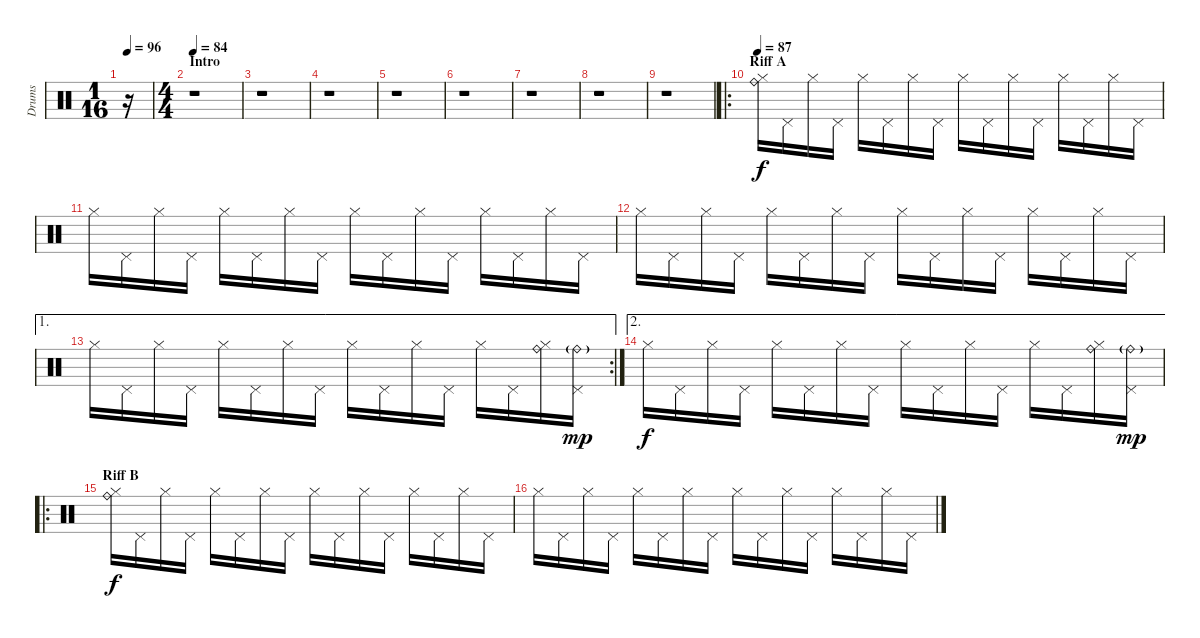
\track ("Drums" "Drums") {instrument percussion}
\staff {score}
\articulation defaults
\ts (1 16)
\tempo 96
\clef neutral
\ks c
r.16{dy f} |
\ts (4 4)
\section ("" "Intro")
\tempo 84
r.1 |
r.1 |
r.1 |
r.1 |
r.1 |
r.1 |
r.1 |
r.1 |
\ro
\section ("" "Riff A")
\tempo 87
("Hi-Hat (closed)" "Ride (bell)").16 "Pedal Hi-Hat (hit)".16 "Hi-Hat (closed)".16 "Pedal Hi-Hat (hit)".16 "Hi-Hat (closed)".16 "Pedal Hi-Hat (hit)".16 "Hi-Hat (closed)".16 "Pedal Hi-Hat (hit)".16 "Hi-Hat (closed)".16 "Pedal Hi-Hat (hit)".16 "Hi-Hat (closed)".16 "Pedal Hi-Hat (hit)".16 "Hi-Hat (closed)".16 "Pedal Hi-Hat (hit)".16 "Hi-Hat (closed)".16 "Pedal Hi-Hat (hit)".16 |
"Hi-Hat (closed)".16 "Pedal Hi-Hat (hit)".16 "Hi-Hat (closed)".16 "Pedal Hi-Hat (hit)".16 "Hi-Hat (closed)".16 "Pedal Hi-Hat (hit)".16 "Hi-Hat (closed)".16 "Pedal Hi-Hat (hit)".16 "Hi-Hat (closed)".16 "Pedal Hi-Hat (hit)".16 "Hi-Hat (closed)".16 "Pedal Hi-Hat (hit)".16 "Hi-Hat (closed)".16 "Pedal Hi-Hat (hit)".16 "Hi-Hat (closed)".16 "Pedal Hi-Hat (hit)".16 |
"Hi-Hat (closed)".16 "Pedal Hi-Hat (hit)".16 "Hi-Hat (closed)".16 "Pedal Hi-Hat (hit)".16 "Hi-Hat (closed)".16 "Pedal Hi-Hat (hit)".16 "Hi-Hat (closed)".16 "Pedal Hi-Hat (hit)".16 "Hi-Hat (closed)".16 "Pedal Hi-Hat (hit)".16 "Hi-Hat (closed)".16 "Pedal Hi-Hat (hit)".16 "Hi-Hat (closed)".16 "Pedal Hi-Hat (hit)".16 "Hi-Hat (closed)".16 "Pedal Hi-Hat (hit)".16 |
\ae 1
\rc 2 "Hi-Hat (closed)".16 "Pedal Hi-Hat (hit)".16 "Hi-Hat (closed)".16 "Pedal Hi-Hat (hit)".16 "Hi-Hat (closed)".16 "Pedal Hi-Hat (hit)".16 "Hi-Hat (closed)".16 "Pedal Hi-Hat (hit)".16 "Hi-Hat (closed)".16 "Pedal Hi-Hat (hit)".16 "Hi-Hat (closed)".16 "Pedal Hi-Hat (hit)".16 "Hi-Hat (closed)".16 "Pedal Hi-Hat (hit)".16
("Hi-Hat (closed)" "Ride (bell)").16 ("Pedal Hi-Hat (hit)" "Ride (bell)"{g}).16{dy mp} |
\ae 2 "Hi-Hat (closed)".16{dy f} "Pedal Hi-Hat (hit)".16 "Hi-Hat (closed)".16 "Pedal Hi-Hat (hit)".16 "Hi-Hat (closed)".16 "Pedal Hi-Hat (hit)".16 "Hi-Hat (closed)".16 "Pedal Hi-Hat (hit)".16 "Hi-Hat (closed)".16 "Pedal Hi-Hat (hit)".16 "Hi-Hat (closed)".16 "Pedal Hi-Hat (hit)".16 "Hi-Hat (closed)".16 "Pedal Hi-Hat (hit)".16
("Hi-Hat (closed)" "Ride (bell)").16 ("Pedal Hi-Hat (hit)" "Ride (bell)"{g}).16{dy mp} |
\ro
\section ("" "Riff B")
("Hi-Hat (closed)" "Ride (bell)").16{dy f} "Pedal Hi-Hat (hit)".16 "Hi-Hat (closed)".16 "Pedal Hi-Hat (hit)".16 "Hi-Hat (closed)".16 "Pedal Hi-Hat (hit)".16 "Hi-Hat (closed)".16 "Pedal Hi-Hat (hit)".16 "Hi-Hat (closed)".16 "Pedal Hi-Hat (hit)".16 "Hi-Hat (closed)".16 "Pedal Hi-Hat (hit)".16 "Hi-Hat (closed)".16 "Pedal Hi-Hat (hit)".16 "Hi-Hat (closed)".16 "Pedal Hi-Hat (hit)".16 |
"Hi-Hat (closed)".16 "Pedal Hi-Hat (hit)".16 "Hi-Hat (closed)".16 "Pedal Hi-Hat (hit)".16 "Hi-Hat (closed)".16 "Pedal Hi-Hat (hit)".16 "Hi-Hat (closed)".16 "Pedal Hi-Hat (hit)".16 "Hi-Hat (closed)".16 "Pedal Hi-Hat (hit)".16 "Hi-Hat (closed)".16 "Pedal Hi-Hat (hit)".16 "Hi-Hat (closed)".16 "Pedal Hi-Hat (hit)".16 "Hi-Hat (closed)".16 "Pedal Hi-Hat (hit)".16
